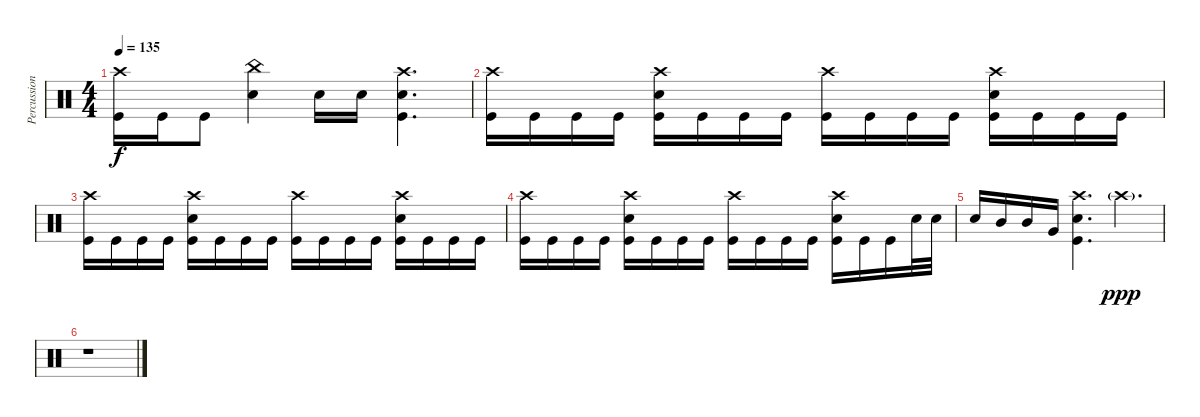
\track ("Percussion" "Percussion") {instrument percussion}
\staff {score}
\articulation defaults
\ts (4 4)
\tempo 135
\clef neutral
\ks c
("Crash high (hit)" "Kick (hit)").16{dy f} "Kick (hit)".16 "Kick (hit)".8 ("China (hit)" "Snare (hit) 2").4 "Snare (hit) 2".16 "Snare (hit) 2".16 ("Kick (hit)" "Crash high (hit)" "Snare (hit) 2").4{d} |
("Kick (hit)" "Crash high (hit)").16 "Kick (hit)".16 "Kick (hit)".16 "Kick (hit)".16 ("Kick (hit)" "Crash high (hit)" "Snare (hit) 2").16 "Kick (hit)".16 "Kick (hit)".16 "Kick (hit)".16 ("Kick (hit)" "Crash high (hit)").16 "Kick (hit)".16 "Kick (hit)".16 "Kick (hit)".16 ("Kick (hit)" "Crash high (hit)" "Snare (hit) 2").16 "Kick (hit)".16 "Kick (hit)".16 "Kick (hit)".16 |
("Kick (hit)" "Crash high (hit)").16 "Kick (hit)".16 "Kick (hit)".16 "Kick (hit)".16 ("Kick (hit)" "Crash high (hit)" "Snare (hit) 2").16 "Kick (hit)".16 "Kick (hit)".16 "Kick (hit)".16 ("Kick (hit)" "Crash high (hit)").16 "Kick (hit)".16 "Kick (hit)".16 "Kick (hit)".16 ("Kick (hit)" "Crash high (hit)" "Snare (hit) 2").16 "Kick (hit)".16 "Kick (hit)".16 "Kick (hit)".16 |
("Kick (hit)" "Crash high (hit)").16 "Kick (hit)".16 "Kick (hit)".16 "Kick (hit)".16 ("Kick (hit)" "Crash high (hit)" "Snare (hit) 2").16 "Kick (hit)".16 "Kick (hit)".16 "Kick (hit)".16 ("Kick (hit)" "Crash high (hit)").16 "Kick (hit)".16 "Kick (hit)".16 "Kick (hit)".16 ("Kick (hit)" "Crash high (hit)" "Snare (hit) 2").16 "Kick (hit)".16 "Kick (hit)".16 "Snare (hit) 2".32 "Snare (hit) 2".32 |
"Snare (hit) 2".16 "Mid Tom (hit)".16 "Mid Tom (hit)".16 "Very Low Tom (hit)".16 ("Crash high (hit)" "Kick (hit)" "Snare (hit) 2").4{d} "Crash high (hit)"{g}.4{d dy ppp volume 0} |
r.1
